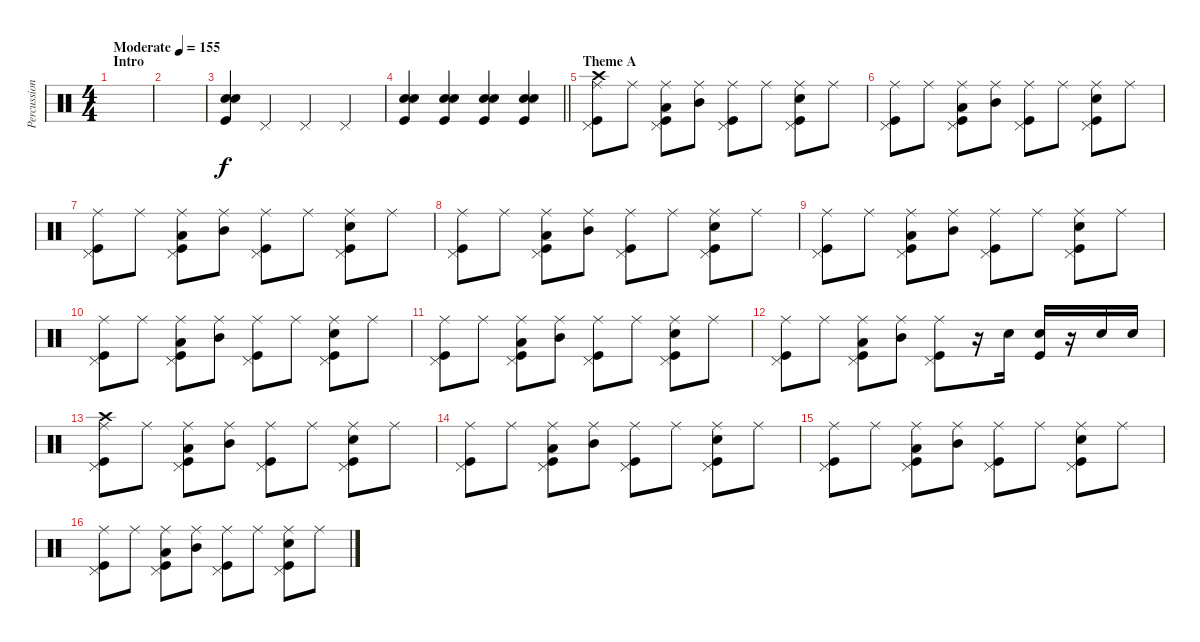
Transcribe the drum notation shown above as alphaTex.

\track ("Percussion" "Percussion") {instrument percussion}
\staff {score}
\articulation defaults
\ts (4 4)
\section ("" "Intro")
\tempo (155 "Moderate")
\clef neutral
\ks c
|
|
("Electric Snare (hit)" "Electric Snare (hit)" "Kick (hit)").4 "Pedal Hi-Hat (hit)".4 "Pedal Hi-Hat (hit)".4 "Pedal Hi-Hat (hit)".4 |
\barLineRight lightlight
("Electric Snare (hit)" "Electric Snare (hit)" "Kick (hit)").4 ("Electric Snare (hit)" "Electric Snare (hit)" "Kick (hit)").4 ("Electric Snare (hit)" "Electric Snare (hit)" "Kick (hit)").4 ("Electric Snare (hit)" "Electric Snare (hit)" "Kick (hit)").4 |
\section ("" "Theme A")
("Pedal Hi-Hat (hit)" "Ride (middle)" "Crash high (hit)" "Kick (hit)").8 "Ride (middle)".8 ("Pedal Hi-Hat (hit)" "Ride (middle)" "Low Tom (hit)" "Kick (hit)").8 ("Ride (middle)" "Mid Tom (hit)").8 ("Pedal Hi-Hat (hit)" "Ride (middle)" "Kick (hit)").8 "Ride (middle)".8 ("Pedal Hi-Hat (hit)" "Ride (middle)" "Electric Snare (hit)" "Kick (hit)").8 "Ride (middle)".8 |
("Pedal Hi-Hat (hit)" "Ride (middle)" "Kick (hit)").8 "Ride (middle)".8 ("Pedal Hi-Hat (hit)" "Ride (middle)" "Low Tom (hit)" "Kick (hit)").8 ("Ride (middle)" "Mid Tom (hit)").8 ("Pedal Hi-Hat (hit)" "Ride (middle)" "Kick (hit)").8 "Ride (middle)".8 ("Pedal Hi-Hat (hit)" "Ride (middle)" "Electric Snare (hit)" "Kick (hit)").8 "Ride (middle)".8 |
("Pedal Hi-Hat (hit)" "Ride (middle)" "Kick (hit)").8 "Ride (middle)".8 ("Pedal Hi-Hat (hit)" "Ride (middle)" "Low Tom (hit)" "Kick (hit)").8 ("Ride (middle)" "Mid Tom (hit)").8 ("Pedal Hi-Hat (hit)" "Ride (middle)" "Kick (hit)").8 "Ride (middle)".8 ("Pedal Hi-Hat (hit)" "Ride (middle)" "Electric Snare (hit)" "Kick (hit)").8 "Ride (middle)".8 |
("Pedal Hi-Hat (hit)" "Ride (middle)" "Kick (hit)").8 "Ride (middle)".8 ("Pedal Hi-Hat (hit)" "Ride (middle)" "Low Tom (hit)" "Kick (hit)").8 ("Ride (middle)" "Mid Tom (hit)").8 ("Pedal Hi-Hat (hit)" "Ride (middle)" "Kick (hit)").8 "Ride (middle)".8 ("Pedal Hi-Hat (hit)" "Ride (middle)" "Electric Snare (hit)" "Kick (hit)").8 "Ride (middle)".8 |
("Pedal Hi-Hat (hit)" "Ride (middle)" "Kick (hit)").8 "Ride (middle)".8 ("Pedal Hi-Hat (hit)" "Ride (middle)" "Low Tom (hit)" "Kick (hit)").8 ("Ride (middle)" "Mid Tom (hit)").8 ("Pedal Hi-Hat (hit)" "Ride (middle)" "Kick (hit)").8 "Ride (middle)".8 ("Pedal Hi-Hat (hit)" "Ride (middle)" "Electric Snare (hit)" "Kick (hit)").8 "Ride (middle)".8 |
("Pedal Hi-Hat (hit)" "Ride (middle)" "Kick (hit)").8 "Ride (middle)".8 ("Pedal Hi-Hat (hit)" "Ride (middle)" "Low Tom (hit)" "Kick (hit)").8 ("Ride (middle)" "Mid Tom (hit)").8 ("Pedal Hi-Hat (hit)" "Ride (middle)" "Kick (hit)").8 "Ride (middle)".8 ("Pedal Hi-Hat (hit)" "Ride (middle)" "Electric Snare (hit)" "Kick (hit)").8 "Ride (middle)".8 |
("Pedal Hi-Hat (hit)" "Ride (middle)" "Kick (hit)").8 "Ride (middle)".8 ("Pedal Hi-Hat (hit)" "Ride (middle)" "Low Tom (hit)" "Kick (hit)").8 ("Ride (middle)" "Mid Tom (hit)").8 ("Pedal Hi-Hat (hit)" "Ride (middle)" "Kick (hit)").8 "Ride (middle)".8 ("Pedal Hi-Hat (hit)" "Ride (middle)" "Electric Snare (hit)" "Kick (hit)").8 "Ride (middle)".8 |
("Pedal Hi-Hat (hit)" "Ride (middle)" "Kick (hit)").8 "Ride (middle)".8 ("Pedal Hi-Hat (hit)" "Ride (middle)" "Low Tom (hit)" "Kick (hit)").8 ("Ride (middle)" "Mid Tom (hit)").8 ("Pedal Hi-Hat (hit)" "Ride (middle)" "Kick (hit)").8 r.16 "Electric Snare (hit)".16 ("Electric Snare (hit)" "Kick (hit)").16 r.16 "Electric Snare (hit)".16 "Electric Snare (hit)".16 |
("Pedal Hi-Hat (hit)" "Ride (middle)" "Crash high (hit)" "Kick (hit)").8 "Ride (middle)".8 ("Pedal Hi-Hat (hit)" "Ride (middle)" "Low Tom (hit)" "Kick (hit)").8 ("Ride (middle)" "Mid Tom (hit)").8 ("Pedal Hi-Hat (hit)" "Ride (middle)" "Kick (hit)").8 "Ride (middle)".8 ("Pedal Hi-Hat (hit)" "Ride (middle)" "Electric Snare (hit)" "Kick (hit)").8 "Ride (middle)".8 |
("Pedal Hi-Hat (hit)" "Ride (middle)" "Kick (hit)").8 "Ride (middle)".8 ("Pedal Hi-Hat (hit)" "Ride (middle)" "Low Tom (hit)" "Kick (hit)").8 ("Ride (middle)" "Mid Tom (hit)").8 ("Pedal Hi-Hat (hit)" "Ride (middle)" "Kick (hit)").8 "Ride (middle)".8 ("Pedal Hi-Hat (hit)" "Ride (middle)" "Electric Snare (hit)" "Kick (hit)").8 "Ride (middle)".8 |
("Pedal Hi-Hat (hit)" "Ride (middle)" "Kick (hit)").8 "Ride (middle)".8 ("Pedal Hi-Hat (hit)" "Ride (middle)" "Low Tom (hit)" "Kick (hit)").8 ("Ride (middle)" "Mid Tom (hit)").8 ("Pedal Hi-Hat (hit)" "Ride (middle)" "Kick (hit)").8 "Ride (middle)".8 ("Pedal Hi-Hat (hit)" "Ride (middle)" "Electric Snare (hit)" "Kick (hit)").8 "Ride (middle)".8 |
("Pedal Hi-Hat (hit)" "Ride (middle)" "Kick (hit)").8 "Ride (middle)".8 ("Pedal Hi-Hat (hit)" "Ride (middle)" "Low Tom (hit)" "Kick (hit)").8 ("Ride (middle)" "Mid Tom (hit)").8 ("Pedal Hi-Hat (hit)" "Ride (middle)" "Kick (hit)").8 "Ride (middle)".8 ("Pedal Hi-Hat (hit)" "Ride (middle)" "Electric Snare (hit)" "Kick (hit)").8 "Ride (middle)".8
